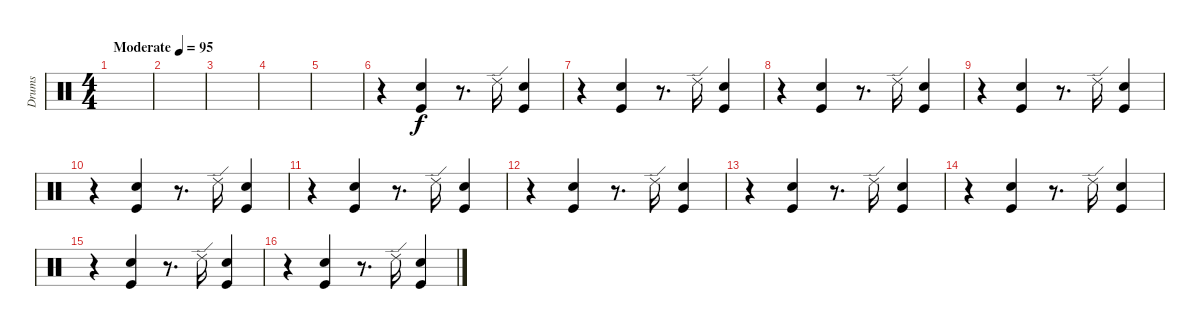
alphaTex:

\track ("Drums" "Drums") {instrument percussion}
\staff {score}
\articulation defaults
\ts (4 4)
\tempo (95 "Moderate")
\clef neutral
\ks c
|
|
|
|
|
r.4 ("Kick (hit)" "Snare (hit) 2").4 r.8{d} "Ride (edge) 2".16 ("Kick (hit)" "Snare (hit) 2").4 |
r.4 ("Kick (hit)" "Snare (hit) 2").4 r.8{d} "Ride (edge) 2".16 ("Kick (hit)" "Snare (hit) 2").4 |
r.4 ("Kick (hit)" "Snare (hit) 2").4 r.8{d} "Ride (edge) 2".16 ("Kick (hit)" "Snare (hit) 2").4 |
r.4 ("Kick (hit)" "Snare (hit) 2").4 r.8{d} "Ride (edge) 2".16 ("Kick (hit)" "Snare (hit) 2").4 |
r.4 ("Kick (hit)" "Snare (hit) 2").4 r.8{d} "Ride (edge) 2".16 ("Kick (hit)" "Snare (hit) 2").4 |
r.4 ("Kick (hit)" "Snare (hit) 2").4 r.8{d} "Ride (edge) 2".16 ("Kick (hit)" "Snare (hit) 2").4 |
r.4 ("Kick (hit)" "Snare (hit) 2").4 r.8{d} "Ride (edge) 2".16 ("Kick (hit)" "Snare (hit) 2").4 |
r.4 ("Kick (hit)" "Snare (hit) 2").4 r.8{d} "Ride (edge) 2".16 ("Kick (hit)" "Snare (hit) 2").4 |
r.4 ("Kick (hit)" "Snare (hit) 2").4 r.8{d} "Ride (edge) 2".16 ("Kick (hit)" "Snare (hit) 2").4 |
r.4 ("Kick (hit)" "Snare (hit) 2").4 r.8{d} "Ride (edge) 2".16 ("Kick (hit)" "Snare (hit) 2").4 |
r.4 ("Kick (hit)" "Snare (hit) 2").4 r.8{d} "Ride (edge) 2".16 ("Kick (hit)" "Snare (hit) 2").4
